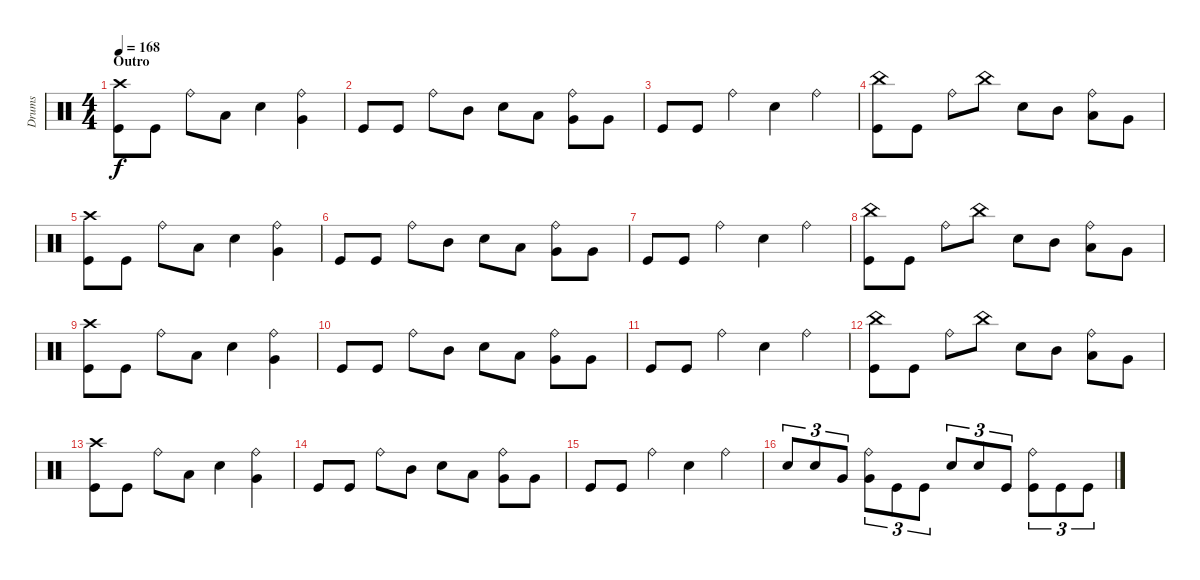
\track ("Drums" "Drums") {instrument percussion}
\staff {score}
\articulation defaults
\ts (4 4)
\section ("" "Outro")
\tempo 168
\clef neutral
\ks c
("Crash high (hit)" "Kick (hit)").8{dy f} "Kick (hit)".8 "Ride (bell)".8 "Low Tom (hit)".8 "Electric Snare (hit)".4 ("Ride (bell)" "Very Low Tom (hit)").4 |
"Kick (hit)".8 "Kick (hit)".8 "Ride (bell)".8 "Mid Tom (hit)".8 "Electric Snare (hit)".8 "Low Tom (hit)".8 ("Ride (bell)" "Very Low Tom (hit)").8 "Very Low Tom (hit)".8 |
"Kick (hit)".8 "Kick (hit)".8 "Ride (bell)".4 "Electric Snare (hit)".4 "Ride (bell)".4 |
("China (hit)" "Kick (hit)").8 "Kick (hit)".8 "Ride (bell)".8 "China (hit)".8 "Electric Snare (hit)".8 "Mid Tom (hit)".8 ("Ride (bell)" "Low Tom (hit)").8 "Very Low Tom (hit)".8 |
("Crash high (hit)" "Kick (hit)").8 "Kick (hit)".8 "Ride (bell)".8 "Low Tom (hit)".8 "Electric Snare (hit)".4 ("Ride (bell)" "Very Low Tom (hit)").4 |
"Kick (hit)".8 "Kick (hit)".8 "Ride (bell)".8 "Mid Tom (hit)".8 "Electric Snare (hit)".8 "Low Tom (hit)".8 ("Ride (bell)" "Very Low Tom (hit)").8 "Very Low Tom (hit)".8 |
"Kick (hit)".8 "Kick (hit)".8 "Ride (bell)".4 "Electric Snare (hit)".4 "Ride (bell)".4 |
("China (hit)" "Kick (hit)").8 "Kick (hit)".8 "Ride (bell)".8 "China (hit)".8 "Electric Snare (hit)".8 "Mid Tom (hit)".8 ("Ride (bell)" "Low Tom (hit)").8 "Very Low Tom (hit)".8 |
("Crash high (hit)" "Kick (hit)").8 "Kick (hit)".8 "Ride (bell)".8 "Low Tom (hit)".8 "Electric Snare (hit)".4 ("Ride (bell)" "Very Low Tom (hit)").4 |
"Kick (hit)".8 "Kick (hit)".8 "Ride (bell)".8 "Mid Tom (hit)".8 "Electric Snare (hit)".8 "Low Tom (hit)".8 ("Ride (bell)" "Very Low Tom (hit)").8 "Very Low Tom (hit)".8 |
"Kick (hit)".8 "Kick (hit)".8 "Ride (bell)".4 "Electric Snare (hit)".4 "Ride (bell)".4 |
("China (hit)" "Kick (hit)").8 "Kick (hit)".8 "Ride (bell)".8 "China (hit)".8 "Electric Snare (hit)".8 "Mid Tom (hit)".8 ("Ride (bell)" "Low Tom (hit)").8 "Very Low Tom (hit)".8 |
("Crash high (hit)" "Kick (hit)").8 "Kick (hit)".8 "Ride (bell)".8 "Low Tom (hit)".8 "Electric Snare (hit)".4 ("Ride (bell)" "Very Low Tom (hit)").4 |
"Kick (hit)".8 "Kick (hit)".8 "Ride (bell)".8 "Mid Tom (hit)".8 "Electric Snare (hit)".8 "Low Tom (hit)".8 ("Ride (bell)" "Very Low Tom (hit)").8 "Very Low Tom (hit)".8 |
"Kick (hit)".8 "Kick (hit)".8 "Ride (bell)".4 "Electric Snare (hit)".4 "Ride (bell)".4 |
"Electric Snare (hit)".8{tu (3 2)} "Electric Snare (hit)".8{tu (3 2)} "Very Low Tom (hit)".8{tu (3 2)} ("Ride (bell)" "Very Low Tom (hit)").8{tu (3 2)} "Kick (hit)".8{tu (3 2)} "Kick (hit)".8{tu (3 2)} "Electric Snare (hit)".8{tu (3 2)} "Electric Snare (hit)".8{tu (3 2)} "Kick (hit)".8{tu (3 2)} ("Ride (bell)" "Kick (hit)").8{tu (3 2)} "Kick (hit)".8{tu (3 2)} "Kick (hit)".8{tu (3 2)}
